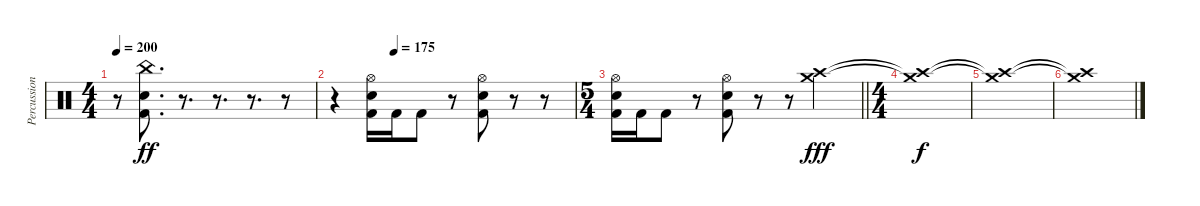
\track ("Percussion" "Percussion") {instrument percussion}
\staff {score}
\articulation defaults
\ts (4 4)
\tempo 200
\clef neutral
\ks c
r.8{dy ff} ("China (hit)" "Electric Snare (hit)" "Kick (hit) 2").8{d} r.8{d} r.8{d} r.8{d} r.8 |
\tempo (175 0.25)
r.4 ("Hi-Hat (open)" "Electric Snare (hit)" "Kick (hit) 2").16 "Kick (hit) 2".16 "Kick (hit) 2".8 r.8 ("Hi-Hat (open)" "Electric Snare (hit)" "Kick (hit) 2").8 r.8 r.8 |
\ts (5 4)
\barLineRight lightlight
("Hi-Hat (open)" "Electric Snare (hit)" "Kick (hit) 2").16 "Kick (hit) 2".16 "Kick (hit) 2".8 r.8 ("Hi-Hat (open)" "Electric Snare (hit)" "Kick (hit) 2").8 r.8 r.8 ("Crash high (hit)" "Crash medium (hit)").2{dy fff} |
\ts (4 4)
("Crash high (hit)"{t} "Crash medium (hit)"{t}).1{dy f} |
("Crash high (hit)"{t} "Crash medium (hit)"{t}).1 |
("Crash high (hit)"{t} "Crash medium (hit)"{t}).1
